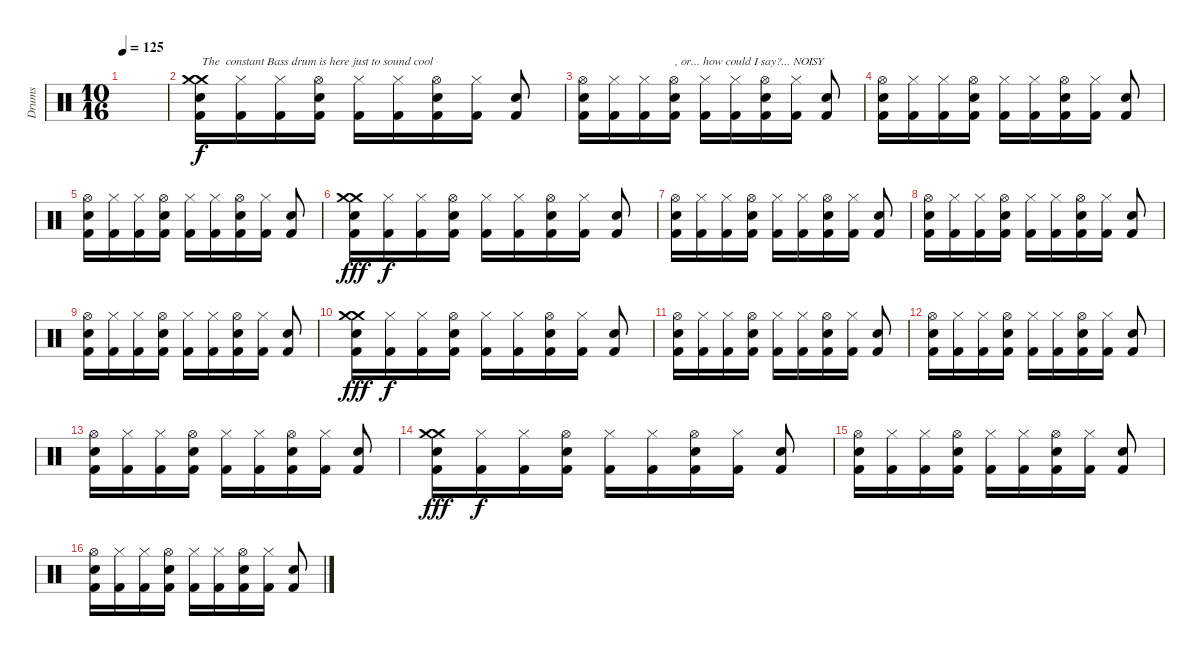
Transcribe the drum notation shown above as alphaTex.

\track ("Drums" "Drums") {instrument percussion}
\staff {score}
\articulation defaults
\ts (10 16)
\tempo 125
\clef neutral
\ks c
|
("Kick (hit) 2" "Electric Snare (hit)" "Crash medium (hit)" "Crash medium (hit)").16{txt "The  constant Bass drum is here just to sound cool"} ("Kick (hit) 2" "Hi-Hat (closed)").16{dy f} ("Kick (hit) 2" "Hi-Hat (closed)").16 ("Kick (hit) 2" "Electric Snare (hit)" "Hi-Hat (open)").16 ("Kick (hit) 2" "Hi-Hat (closed)").16 ("Kick (hit) 2" "Hi-Hat (closed)").16 ("Kick (hit) 2" "Electric Snare (hit)" "Hi-Hat (open)").16 ("Kick (hit) 2" "Hi-Hat (closed)").16 ("Kick (hit) 2" "Electric Snare (hit)").8 |
("Kick (hit) 2" "Electric Snare (hit)" "Hi-Hat (open)").16 ("Kick (hit) 2" "Hi-Hat (closed)").16 ("Kick (hit) 2" "Hi-Hat (closed)").16 ("Kick (hit) 2" "Electric Snare (hit)" "Hi-Hat (open)").16{txt ", or... how could I say?... NOISY"} ("Kick (hit) 2" "Hi-Hat (closed)").16 ("Kick (hit) 2" "Hi-Hat (closed)").16 ("Kick (hit) 2" "Electric Snare (hit)" "Hi-Hat (open)").16 ("Kick (hit) 2" "Hi-Hat (closed)").16 ("Kick (hit) 2" "Electric Snare (hit)").8 |
("Kick (hit) 2" "Electric Snare (hit)" "Hi-Hat (open)").16 ("Kick (hit) 2" "Hi-Hat (closed)").16 ("Kick (hit) 2" "Hi-Hat (closed)").16 ("Kick (hit) 2" "Electric Snare (hit)" "Hi-Hat (open)").16 ("Kick (hit) 2" "Hi-Hat (closed)").16 ("Kick (hit) 2" "Hi-Hat (closed)").16 ("Kick (hit) 2" "Electric Snare (hit)" "Hi-Hat (open)").16 ("Kick (hit) 2" "Hi-Hat (closed)").16 ("Kick (hit) 2" "Electric Snare (hit)").8 |
("Kick (hit) 2" "Electric Snare (hit)" "Hi-Hat (open)").16 ("Kick (hit) 2" "Hi-Hat (closed)").16 ("Kick (hit) 2" "Hi-Hat (closed)").16 ("Kick (hit) 2" "Electric Snare (hit)" "Hi-Hat (open)").16 ("Kick (hit) 2" "Hi-Hat (closed)").16 ("Kick (hit) 2" "Hi-Hat (closed)").16 ("Kick (hit) 2" "Electric Snare (hit)" "Hi-Hat (open)").16 ("Kick (hit) 2" "Hi-Hat (closed)").16 ("Kick (hit) 2" "Electric Snare (hit)").8 |
("Kick (hit) 2" "Electric Snare (hit)" "Crash medium (hit)" "Crash medium (hit)").16{dy fff} ("Kick (hit) 2" "Hi-Hat (closed)").16{dy f} ("Kick (hit) 2" "Hi-Hat (closed)").16 ("Kick (hit) 2" "Electric Snare (hit)" "Hi-Hat (open)").16 ("Kick (hit) 2" "Hi-Hat (closed)").16 ("Kick (hit) 2" "Hi-Hat (closed)").16 ("Kick (hit) 2" "Electric Snare (hit)" "Hi-Hat (open)").16 ("Kick (hit) 2" "Hi-Hat (closed)").16 ("Kick (hit) 2" "Electric Snare (hit)").8 |
("Kick (hit) 2" "Electric Snare (hit)" "Hi-Hat (open)").16 ("Kick (hit) 2" "Hi-Hat (closed)").16 ("Kick (hit) 2" "Hi-Hat (closed)").16 ("Kick (hit) 2" "Electric Snare (hit)" "Hi-Hat (open)").16 ("Kick (hit) 2" "Hi-Hat (closed)").16 ("Kick (hit) 2" "Hi-Hat (closed)").16 ("Kick (hit) 2" "Electric Snare (hit)" "Hi-Hat (open)").16 ("Kick (hit) 2" "Hi-Hat (closed)").16 ("Kick (hit) 2" "Electric Snare (hit)").8 |
("Kick (hit) 2" "Electric Snare (hit)" "Hi-Hat (open)").16 ("Kick (hit) 2" "Hi-Hat (closed)").16 ("Kick (hit) 2" "Hi-Hat (closed)").16 ("Kick (hit) 2" "Electric Snare (hit)" "Hi-Hat (open)").16 ("Kick (hit) 2" "Hi-Hat (closed)").16 ("Kick (hit) 2" "Hi-Hat (closed)").16 ("Kick (hit) 2" "Electric Snare (hit)" "Hi-Hat (open)").16 ("Kick (hit) 2" "Hi-Hat (closed)").16 ("Kick (hit) 2" "Electric Snare (hit)").8 |
("Kick (hit) 2" "Electric Snare (hit)" "Hi-Hat (open)").16 ("Kick (hit) 2" "Hi-Hat (closed)").16 ("Kick (hit) 2" "Hi-Hat (closed)").16 ("Kick (hit) 2" "Electric Snare (hit)" "Hi-Hat (open)").16 ("Kick (hit) 2" "Hi-Hat (closed)").16 ("Kick (hit) 2" "Hi-Hat (closed)").16 ("Kick (hit) 2" "Electric Snare (hit)" "Hi-Hat (open)").16 ("Kick (hit) 2" "Hi-Hat (closed)").16 ("Kick (hit) 2" "Electric Snare (hit)").8 |
("Kick (hit) 2" "Electric Snare (hit)" "Crash medium (hit)" "Crash medium (hit)").16{dy fff} ("Kick (hit) 2" "Hi-Hat (closed)").16{dy f} ("Kick (hit) 2" "Hi-Hat (closed)").16 ("Kick (hit) 2" "Electric Snare (hit)" "Hi-Hat (open)").16 ("Kick (hit) 2" "Hi-Hat (closed)").16 ("Kick (hit) 2" "Hi-Hat (closed)").16 ("Kick (hit) 2" "Electric Snare (hit)" "Hi-Hat (open)").16 ("Kick (hit) 2" "Hi-Hat (closed)").16 ("Kick (hit) 2" "Electric Snare (hit)").8 |
("Kick (hit) 2" "Electric Snare (hit)" "Hi-Hat (open)").16 ("Kick (hit) 2" "Hi-Hat (closed)").16 ("Kick (hit) 2" "Hi-Hat (closed)").16 ("Kick (hit) 2" "Electric Snare (hit)" "Hi-Hat (open)").16 ("Kick (hit) 2" "Hi-Hat (closed)").16 ("Kick (hit) 2" "Hi-Hat (closed)").16 ("Kick (hit) 2" "Electric Snare (hit)" "Hi-Hat (open)").16 ("Kick (hit) 2" "Hi-Hat (closed)").16 ("Kick (hit) 2" "Electric Snare (hit)").8 |
("Kick (hit) 2" "Electric Snare (hit)" "Hi-Hat (open)").16 ("Kick (hit) 2" "Hi-Hat (closed)").16 ("Kick (hit) 2" "Hi-Hat (closed)").16 ("Kick (hit) 2" "Electric Snare (hit)" "Hi-Hat (open)").16 ("Kick (hit) 2" "Hi-Hat (closed)").16 ("Kick (hit) 2" "Hi-Hat (closed)").16 ("Kick (hit) 2" "Electric Snare (hit)" "Hi-Hat (open)").16 ("Kick (hit) 2" "Hi-Hat (closed)").16 ("Kick (hit) 2" "Electric Snare (hit)").8 |
("Kick (hit) 2" "Electric Snare (hit)" "Hi-Hat (open)").16 ("Kick (hit) 2" "Hi-Hat (closed)").16 ("Kick (hit) 2" "Hi-Hat (closed)").16 ("Kick (hit) 2" "Electric Snare (hit)" "Hi-Hat (open)").16 ("Kick (hit) 2" "Hi-Hat (closed)").16 ("Kick (hit) 2" "Hi-Hat (closed)").16 ("Kick (hit) 2" "Electric Snare (hit)" "Hi-Hat (open)").16 ("Kick (hit) 2" "Hi-Hat (closed)").16 ("Kick (hit) 2" "Electric Snare (hit)").8 |
("Kick (hit) 2" "Electric Snare (hit)" "Crash medium (hit)" "Crash medium (hit)").16{dy fff} ("Kick (hit) 2" "Hi-Hat (closed)").16{dy f} ("Kick (hit) 2" "Hi-Hat (closed)").16 ("Kick (hit) 2" "Electric Snare (hit)" "Hi-Hat (open)").16 ("Kick (hit) 2" "Hi-Hat (closed)").16 ("Kick (hit) 2" "Hi-Hat (closed)").16 ("Kick (hit) 2" "Electric Snare (hit)" "Hi-Hat (open)").16 ("Kick (hit) 2" "Hi-Hat (closed)").16 ("Kick (hit) 2" "Electric Snare (hit)").8 |
("Kick (hit) 2" "Electric Snare (hit)" "Hi-Hat (open)").16 ("Kick (hit) 2" "Hi-Hat (closed)").16 ("Kick (hit) 2" "Hi-Hat (closed)").16 ("Kick (hit) 2" "Electric Snare (hit)" "Hi-Hat (open)").16 ("Kick (hit) 2" "Hi-Hat (closed)").16 ("Kick (hit) 2" "Hi-Hat (closed)").16 ("Kick (hit) 2" "Electric Snare (hit)" "Hi-Hat (open)").16 ("Kick (hit) 2" "Hi-Hat (closed)").16 ("Kick (hit) 2" "Electric Snare (hit)").8 |
("Kick (hit) 2" "Electric Snare (hit)" "Hi-Hat (open)").16 ("Kick (hit) 2" "Hi-Hat (closed)").16 ("Kick (hit) 2" "Hi-Hat (closed)").16 ("Kick (hit) 2" "Electric Snare (hit)" "Hi-Hat (open)").16 ("Kick (hit) 2" "Hi-Hat (closed)").16 ("Kick (hit) 2" "Hi-Hat (closed)").16 ("Kick (hit) 2" "Electric Snare (hit)" "Hi-Hat (open)").16 ("Kick (hit) 2" "Hi-Hat (closed)").16 ("Kick (hit) 2" "Electric Snare (hit)").8
